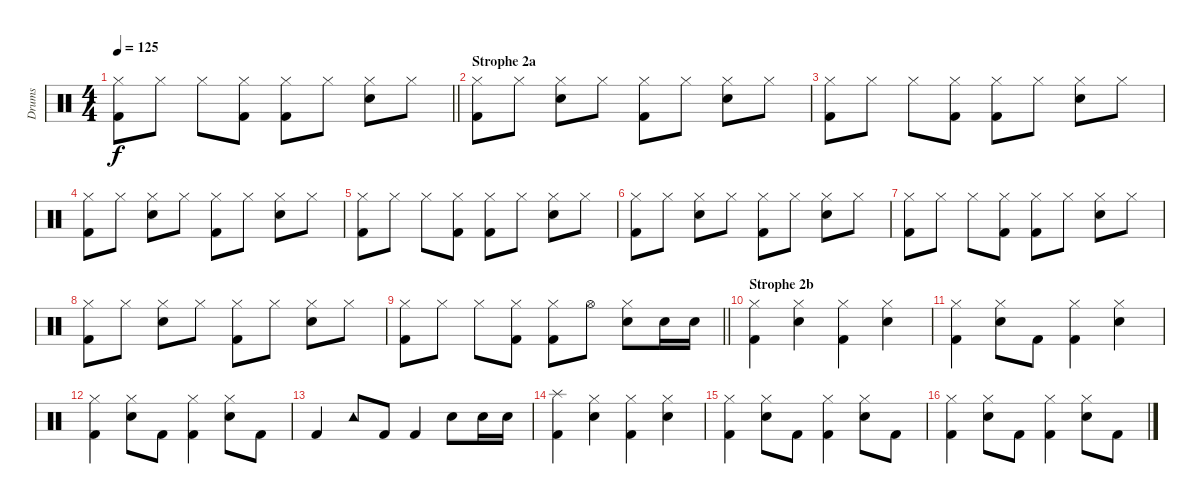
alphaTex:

\track ("Drums" "Drums") {instrument percussion}
\staff {score}
\articulation defaults
\ts (4 4)
\tempo 125
\clef neutral
\barLineRight lightlight
\ks c
("Hi-Hat (closed)" "Kick (hit) 2").8{dy f} "Hi-Hat (closed)".8 "Hi-Hat (closed)".8 ("Hi-Hat (closed)" "Kick (hit) 2").8 ("Hi-Hat (closed)" "Kick (hit) 2").8 "Hi-Hat (closed)".8 ("Hi-Hat (closed)" "Snare (hit) 2").8 "Hi-Hat (closed)".8 |
\section ("" "Strophe 2a")
("Hi-Hat (closed)" "Kick (hit) 2").8 "Hi-Hat (closed)".8 ("Hi-Hat (closed)" "Snare (hit) 2").8 "Hi-Hat (closed)".8 ("Hi-Hat (closed)" "Kick (hit) 2").8 "Hi-Hat (closed)".8 ("Hi-Hat (closed)" "Snare (hit) 2").8 "Hi-Hat (closed)".8 |
("Hi-Hat (closed)" "Kick (hit) 2").8 "Hi-Hat (closed)".8 "Hi-Hat (closed)".8 ("Hi-Hat (closed)" "Kick (hit) 2").8 ("Hi-Hat (closed)" "Kick (hit) 2").8 "Hi-Hat (closed)".8 ("Hi-Hat (closed)" "Snare (hit) 2").8 "Hi-Hat (closed)".8 |
("Hi-Hat (closed)" "Kick (hit) 2").8 "Hi-Hat (closed)".8 ("Hi-Hat (closed)" "Snare (hit) 2").8 "Hi-Hat (closed)".8 ("Hi-Hat (closed)" "Kick (hit) 2").8 "Hi-Hat (closed)".8 ("Hi-Hat (closed)" "Snare (hit) 2").8 "Hi-Hat (closed)".8 |
("Hi-Hat (closed)" "Kick (hit) 2").8 "Hi-Hat (closed)".8 "Hi-Hat (closed)".8 ("Hi-Hat (closed)" "Kick (hit) 2").8 ("Hi-Hat (closed)" "Kick (hit) 2").8 "Hi-Hat (closed)".8 ("Hi-Hat (closed)" "Snare (hit) 2").8 "Hi-Hat (closed)".8 |
("Hi-Hat (closed)" "Kick (hit) 2").8 "Hi-Hat (closed)".8 ("Hi-Hat (closed)" "Snare (hit) 2").8 "Hi-Hat (closed)".8 ("Hi-Hat (closed)" "Kick (hit) 2").8 "Hi-Hat (closed)".8 ("Hi-Hat (closed)" "Snare (hit) 2").8 "Hi-Hat (closed)".8 |
("Hi-Hat (closed)" "Kick (hit) 2").8 "Hi-Hat (closed)".8 "Hi-Hat (closed)".8 ("Hi-Hat (closed)" "Kick (hit) 2").8 ("Hi-Hat (closed)" "Kick (hit) 2").8 "Hi-Hat (closed)".8 ("Hi-Hat (closed)" "Snare (hit) 2").8 "Hi-Hat (closed)".8 |
("Hi-Hat (closed)" "Kick (hit) 2").8 "Hi-Hat (closed)".8 ("Hi-Hat (closed)" "Snare (hit) 2").8 "Hi-Hat (closed)".8 ("Hi-Hat (closed)" "Kick (hit) 2").8 "Hi-Hat (closed)".8 ("Hi-Hat (closed)" "Snare (hit) 2").8 "Hi-Hat (closed)".8 |
\barLineRight lightlight
("Hi-Hat (closed)" "Kick (hit) 2").8 "Hi-Hat (closed)".8 "Hi-Hat (closed)".8 ("Hi-Hat (closed)" "Kick (hit) 2").8 ("Hi-Hat (closed)" "Kick (hit) 2").8 "Hi-Hat (open)".8 ("Hi-Hat (closed)" "Snare (hit) 2").8 "Snare (hit) 2".16 "Snare (hit) 2".16 |
\section ("" "Strophe 2b")
("Hi-Hat (closed)" "Kick (hit) 2").4 ("Hi-Hat (closed)" "Snare (hit) 2").4 ("Hi-Hat (closed)" "Kick (hit) 2").4 ("Hi-Hat (closed)" "Snare (hit) 2").4 |
("Hi-Hat (closed)" "Kick (hit) 2").4 ("Hi-Hat (closed)" "Snare (hit) 2").8 "Kick (hit) 2".8 ("Hi-Hat (closed)" "Kick (hit) 2").4 ("Hi-Hat (closed)" "Snare (hit) 2").4 |
("Hi-Hat (closed)" "Kick (hit) 2").4 ("Hi-Hat (closed)" "Snare (hit) 2").8 "Kick (hit) 2".8 ("Hi-Hat (closed)" "Kick (hit) 2").4 ("Hi-Hat (closed)" "Snare (hit) 2").8 "Kick (hit) 2".8 |
"Kick (hit) 2".4 "Tambourine (hit)".8 "Kick (hit) 2".8 "Kick (hit) 2".4 "Snare (hit) 2".8 "Snare (hit) 2".16 "Snare (hit) 2".16 |
("Splash (hit)" "Kick (hit) 2").4 ("Hi-Hat (closed)" "Snare (hit) 2").4 ("Hi-Hat (closed)" "Kick (hit) 2").4 ("Hi-Hat (closed)" "Snare (hit) 2").4 |
("Hi-Hat (closed)" "Kick (hit) 2").4 ("Hi-Hat (closed)" "Snare (hit) 2").8 "Kick (hit) 2".8 ("Hi-Hat (closed)" "Kick (hit) 2").4 ("Hi-Hat (closed)" "Snare (hit) 2").8 "Kick (hit) 2".8 |
("Hi-Hat (closed)" "Kick (hit) 2").4 ("Hi-Hat (closed)" "Snare (hit) 2").8 "Kick (hit) 2".8 ("Hi-Hat (closed)" "Kick (hit) 2").4 ("Hi-Hat (closed)" "Snare (hit) 2").8 "Kick (hit) 2".8
